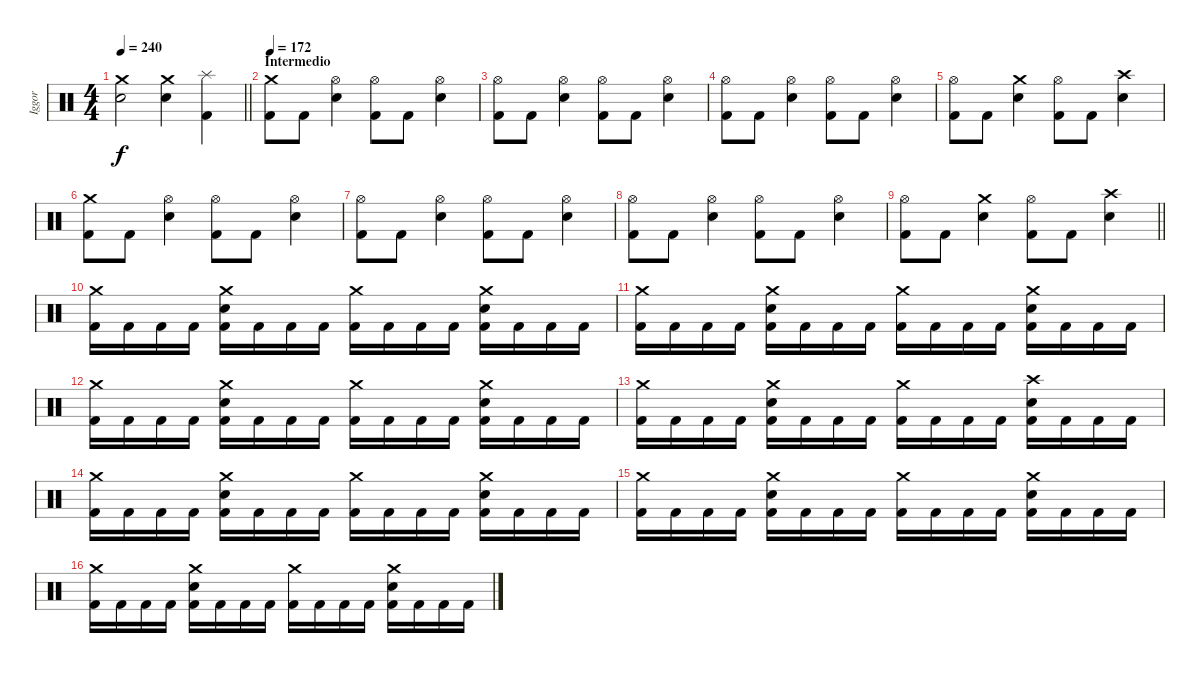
\track ("Iggor" "Iggor") {instrument percussion}
\staff {score}
\articulation defaults
\ts (4 4)
\tempo 240
\clef neutral
\barLineRight lightlight
\ks c
("Crash medium (hit)" "Snare (hit) 2").2{dy f} ("Crash medium (hit)" "Snare (hit) 2").4 ("Splash (hit)" "Kick (hit) 2").4 |
\section ("" "Intermedio")
\tempo 172
("Crash medium (hit)" "Kick (hit) 2").8 "Kick (hit) 2".8 ("Hi-Hat (open)" "Snare (hit) 2").4 ("Hi-Hat (open)" "Kick (hit) 2").8 "Kick (hit) 2".8 ("Hi-Hat (open)" "Snare (hit) 2").4 |
("Hi-Hat (open)" "Kick (hit) 2").8 "Kick (hit) 2".8 ("Hi-Hat (open)" "Snare (hit) 2").4 ("Hi-Hat (open)" "Kick (hit) 2").8 "Kick (hit) 2".8 ("Hi-Hat (open)" "Snare (hit) 2").4 |
("Hi-Hat (open)" "Kick (hit) 2").8 "Kick (hit) 2".8 ("Hi-Hat (open)" "Snare (hit) 2").4 ("Hi-Hat (open)" "Kick (hit) 2").8 "Kick (hit) 2".8 ("Hi-Hat (open)" "Snare (hit) 2").4 |
("Hi-Hat (open)" "Kick (hit) 2").8 "Kick (hit) 2".8 ("Crash medium (hit)" "Snare (hit) 2").4 ("Hi-Hat (open)" "Kick (hit) 2").8 "Kick (hit) 2".8 ("Crash high (hit)" "Snare (hit) 2").4 |
("Crash medium (hit)" "Kick (hit) 2").8 "Kick (hit) 2".8 ("Hi-Hat (open)" "Snare (hit) 2").4 ("Hi-Hat (open)" "Kick (hit) 2").8 "Kick (hit) 2".8 ("Hi-Hat (open)" "Snare (hit) 2").4 |
("Hi-Hat (open)" "Kick (hit) 2").8 "Kick (hit) 2".8 ("Hi-Hat (open)" "Snare (hit) 2").4 ("Hi-Hat (open)" "Kick (hit) 2").8 "Kick (hit) 2".8 ("Hi-Hat (open)" "Snare (hit) 2").4 |
("Hi-Hat (open)" "Kick (hit) 2").8 "Kick (hit) 2".8 ("Hi-Hat (open)" "Snare (hit) 2").4 ("Hi-Hat (open)" "Kick (hit) 2").8 "Kick (hit) 2".8 ("Hi-Hat (open)" "Snare (hit) 2").4 |
\barLineRight lightlight
("Hi-Hat (open)" "Kick (hit) 2").8 "Kick (hit) 2".8 ("Crash medium (hit)" "Snare (hit) 2").4 ("Hi-Hat (open)" "Kick (hit) 2").8 "Kick (hit) 2".8 ("Crash high (hit)" "Snare (hit) 2").4 |
("Crash medium (hit)" "Kick (hit) 2").16 "Kick (hit) 2".16 "Kick (hit) 2".16 "Kick (hit) 2".16 ("Crash medium (hit)" "Snare (hit) 2" "Kick (hit) 2").16 "Kick (hit) 2".16 "Kick (hit) 2".16 "Kick (hit) 2".16 ("Crash medium (hit)" "Kick (hit) 2").16 "Kick (hit) 2".16 "Kick (hit) 2".16 "Kick (hit) 2".16 ("Crash medium (hit)" "Snare (hit) 2" "Kick (hit) 2").16 "Kick (hit) 2".16 "Kick (hit) 2".16 "Kick (hit) 2".16 |
("Crash medium (hit)" "Kick (hit) 2").16 "Kick (hit) 2".16 "Kick (hit) 2".16 "Kick (hit) 2".16 ("Crash medium (hit)" "Snare (hit) 2" "Kick (hit) 2").16 "Kick (hit) 2".16 "Kick (hit) 2".16 "Kick (hit) 2".16 ("Crash medium (hit)" "Kick (hit) 2").16 "Kick (hit) 2".16 "Kick (hit) 2".16 "Kick (hit) 2".16 ("Crash medium (hit)" "Snare (hit) 2" "Kick (hit) 2").16 "Kick (hit) 2".16 "Kick (hit) 2".16 "Kick (hit) 2".16 |
("Crash medium (hit)" "Kick (hit) 2").16 "Kick (hit) 2".16 "Kick (hit) 2".16 "Kick (hit) 2".16 ("Crash medium (hit)" "Snare (hit) 2" "Kick (hit) 2").16 "Kick (hit) 2".16 "Kick (hit) 2".16 "Kick (hit) 2".16 ("Crash medium (hit)" "Kick (hit) 2").16 "Kick (hit) 2".16 "Kick (hit) 2".16 "Kick (hit) 2".16 ("Crash medium (hit)" "Snare (hit) 2" "Kick (hit) 2").16 "Kick (hit) 2".16 "Kick (hit) 2".16 "Kick (hit) 2".16 |
("Crash medium (hit)" "Kick (hit) 2").16 "Kick (hit) 2".16 "Kick (hit) 2".16 "Kick (hit) 2".16 ("Crash medium (hit)" "Snare (hit) 2" "Kick (hit) 2").16 "Kick (hit) 2".16 "Kick (hit) 2".16 "Kick (hit) 2".16 ("Crash medium (hit)" "Kick (hit) 2").16 "Kick (hit) 2".16 "Kick (hit) 2".16 "Kick (hit) 2".16 ("Crash high (hit)" "Snare (hit) 2" "Kick (hit) 2").16 "Kick (hit) 2".16 "Kick (hit) 2".16 "Kick (hit) 2".16 |
("Crash medium (hit)" "Kick (hit) 2").16 "Kick (hit) 2".16 "Kick (hit) 2".16 "Kick (hit) 2".16 ("Crash medium (hit)" "Snare (hit) 2" "Kick (hit) 2").16 "Kick (hit) 2".16 "Kick (hit) 2".16 "Kick (hit) 2".16 ("Crash medium (hit)" "Kick (hit) 2").16 "Kick (hit) 2".16 "Kick (hit) 2".16 "Kick (hit) 2".16 ("Crash medium (hit)" "Snare (hit) 2" "Kick (hit) 2").16 "Kick (hit) 2".16 "Kick (hit) 2".16 "Kick (hit) 2".16 |
("Crash medium (hit)" "Kick (hit) 2").16 "Kick (hit) 2".16 "Kick (hit) 2".16 "Kick (hit) 2".16 ("Crash medium (hit)" "Snare (hit) 2" "Kick (hit) 2").16 "Kick (hit) 2".16 "Kick (hit) 2".16 "Kick (hit) 2".16 ("Crash medium (hit)" "Kick (hit) 2").16 "Kick (hit) 2".16 "Kick (hit) 2".16 "Kick (hit) 2".16 ("Crash medium (hit)" "Snare (hit) 2" "Kick (hit) 2").16 "Kick (hit) 2".16 "Kick (hit) 2".16 "Kick (hit) 2".16 |
("Crash medium (hit)" "Kick (hit) 2").16 "Kick (hit) 2".16 "Kick (hit) 2".16 "Kick (hit) 2".16 ("Crash medium (hit)" "Snare (hit) 2" "Kick (hit) 2").16 "Kick (hit) 2".16 "Kick (hit) 2".16 "Kick (hit) 2".16 ("Crash medium (hit)" "Kick (hit) 2").16 "Kick (hit) 2".16 "Kick (hit) 2".16 "Kick (hit) 2".16 ("Crash medium (hit)" "Snare (hit) 2" "Kick (hit) 2").16 "Kick (hit) 2".16 "Kick (hit) 2".16 "Kick (hit) 2".16
